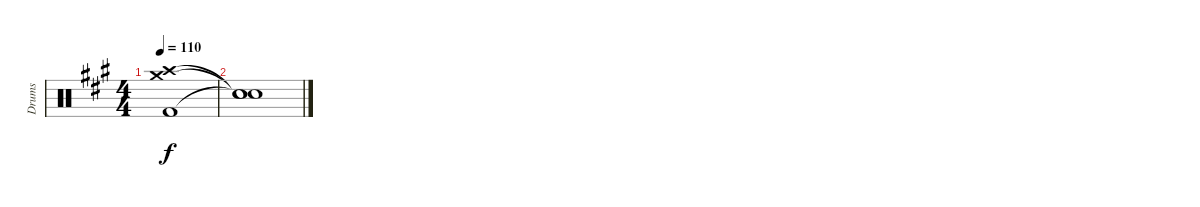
\track ("Drums" "Drums") {instrument percussion}
\staff {score}
\articulation defaults
\ts (4 4)
\tempo 110
\clef neutral
\ks a
("Crash high (hit)" "Crash medium (hit)" "Kick (hit) 2").1{dy f} |
("Snare (hit)"{t} "Snare (hit)"{t} "Snare (hit)"{t}).1
